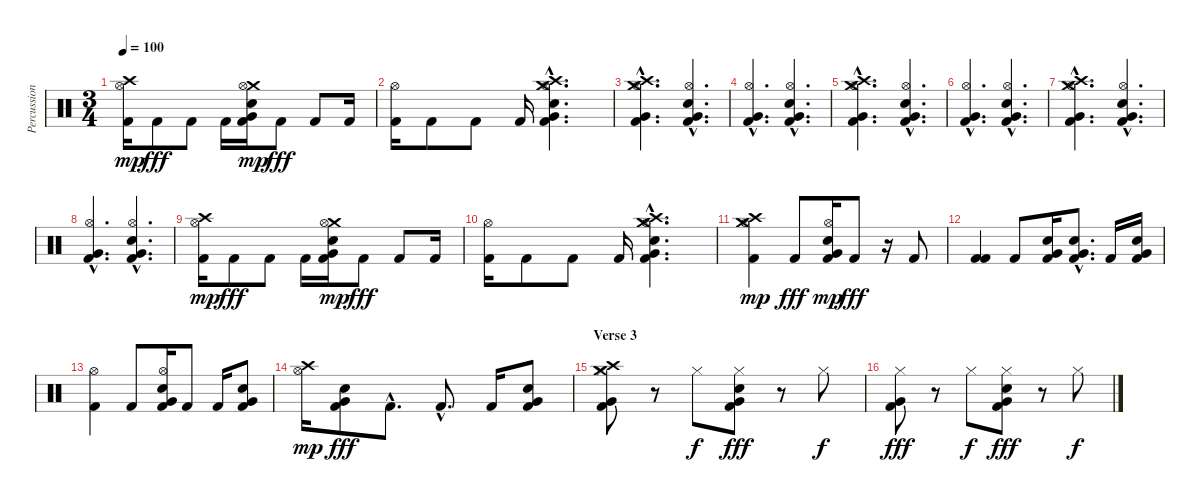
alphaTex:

\track ("Percussion" "Percussion") {instrument percussion}
\staff {score}
\articulation defaults
\ts (3 4)
\tempo 100
\clef neutral
\ks c
("Kick (hit) 2" "Crash high (hit)" "Hi-Hat (open)").16{dy mp} "Kick (hit) 2".8{dy fff} "Kick (hit) 2".8 "Kick (hit) 2".16 ("Snare (hit) 2" "Kick (hit) 2" "Very Low Tom (hit)" "Crash medium (hit)" "Hi-Hat (open)").16{dy mp} "Kick (hit) 2".8{dy fff} "Kick (hit) 2".8 "Kick (hit) 2".16 |
("Kick (hit) 2" "Hi-Hat (open)").16 "Kick (hit) 2".8 "Kick (hit) 2".8 "Kick (hit) 2".16 ("Snare (hit) 2"{hac} "Kick (hit) 2"{hac} "Very Low Tom (hit)"{hac} "Crash medium (hit)"{hac} "Crash high (hit)"{hac} "Hi-Hat (open)"{hac}).4{d} |
("Kick (hit) 2"{hac} "Very Low Tom (hit)"{hac} "Crash medium (hit)"{hac} "Crash high (hit)"{hac} "Hi-Hat (open)"{hac}).4{d} ("Snare (hit) 2"{hac} "Kick (hit) 2"{hac} "Very Low Tom (hit)"{hac} "Hi-Hat (open)"{hac}).4{d} |
("Kick (hit) 2"{hac} "Very Low Tom (hit)"{hac} "Hi-Hat (open)"{hac}).4{d} ("Snare (hit) 2"{hac} "Kick (hit) 2"{hac} "Very Low Tom (hit)"{hac} "Hi-Hat (open)"{hac}).4{d} |
("Kick (hit) 2"{hac} "Very Low Tom (hit)"{hac} "Crash medium (hit)"{hac} "Crash high (hit)"{hac} "Hi-Hat (open)"{hac}).4{d} ("Snare (hit) 2"{hac} "Kick (hit) 2"{hac} "Very Low Tom (hit)"{hac} "Hi-Hat (open)"{hac}).4{d} |
("Kick (hit) 2"{hac} "Very Low Tom (hit)"{hac} "Hi-Hat (open)"{hac}).4{d} ("Snare (hit) 2"{hac} "Kick (hit) 2"{hac} "Very Low Tom (hit)"{hac} "Hi-Hat (open)"{hac}).4{d} |
("Kick (hit) 2"{hac} "Very Low Tom (hit)"{hac} "Crash medium (hit)"{hac} "Crash high (hit)"{hac} "Hi-Hat (open)"{hac}).4{d} ("Snare (hit) 2"{hac} "Kick (hit) 2"{hac} "Very Low Tom (hit)"{hac} "Hi-Hat (open)"{hac}).4{d} |
("Kick (hit) 2"{hac} "Very Low Tom (hit)"{hac} "Hi-Hat (open)"{hac}).4{d} ("Snare (hit) 2"{hac} "Kick (hit) 2"{hac} "Very Low Tom (hit)"{hac} "Hi-Hat (open)"{hac}).4{d} |
("Kick (hit) 2" "Crash high (hit)" "Hi-Hat (open)").16{dy mp} "Kick (hit) 2".8{dy fff} "Kick (hit) 2".8 "Kick (hit) 2".16 ("Snare (hit) 2" "Kick (hit) 2" "Very Low Tom (hit)" "Crash medium (hit)" "Hi-Hat (open)").16{dy mp} "Kick (hit) 2".8{dy fff} "Kick (hit) 2".8 "Kick (hit) 2".16 |
("Kick (hit) 2" "Hi-Hat (open)").16 "Kick (hit) 2".8 "Kick (hit) 2".8 "Kick (hit) 2".16 ("Snare (hit) 2"{hac} "Kick (hit) 2"{hac} "Very Low Tom (hit)"{hac} "Crash medium (hit)"{hac} "Crash high (hit)"{hac} "Hi-Hat (open)"{hac}).4{d} |
("Kick (hit) 2" "Crash medium (hit)" "Crash high (hit)" "Hi-Hat (open)").4{dy mp} "Kick (hit) 2".8{dy fff} ("Snare (hit) 2" "Kick (hit) 2" "Very Low Tom (hit)" "Hi-Hat (open)").16{dy mp} "Kick (hit) 2".8{dy fff} r.16 "Kick (hit) 2".8 |
("Kick (hit) 2" "Kick (hit) 2").4{bd 120} "Kick (hit) 2".8 ("Snare (hit) 2" "Kick (hit) 2" "Very Low Tom (hit)").16 ("Snare (hit) 2"{hac} "Kick (hit) 2"{hac} "Very Low Tom (hit)"{hac}).8{d} "Kick (hit) 2".16 ("Snare (hit) 2" "Kick (hit) 2" "Very Low Tom (hit)").16 |
("Kick (hit) 2" "Hi-Hat (open)").4 "Kick (hit) 2".8 ("Snare (hit) 2" "Kick (hit) 2" "Very Low Tom (hit)" "Hi-Hat (open)").16 "Kick (hit) 2".8 "Kick (hit) 2".16 ("Snare (hit) 2" "Kick (hit) 2" "Very Low Tom (hit)").8 |
("Crash high (hit)" "Hi-Hat (open)").16{dy mp} ("Snare (hit) 2" "Kick (hit) 2" "Very Low Tom (hit)").8{dy fff} "Kick (hit) 2"{hac}.8{d} "Kick (hit) 2"{hac}.8{d} "Kick (hit) 2".16 ("Snare (hit) 2" "Kick (hit) 2" "Very Low Tom (hit)").8 |
\section ("" "Verse 3")
("Very Low Tom (hit)" "Kick (hit) 2" "Crash medium (hit)" "Crash high (hit)" "Hi-Hat (closed)").8 r.8 "Hi-Hat (closed)".8{dy f} ("Snare (hit) 2" "Kick (hit) 2" "Very Low Tom (hit)" "Hi-Hat (closed)").8{dy fff} r.8 "Hi-Hat (closed)".8{dy f} |
("Very Low Tom (hit)" "Kick (hit) 2" "Hi-Hat (closed)").8{dy fff} r.8 "Hi-Hat (closed)".8{dy f} ("Snare (hit) 2" "Kick (hit) 2" "Very Low Tom (hit)" "Hi-Hat (closed)").8{dy fff} r.8 "Hi-Hat (closed)".8{dy f}
